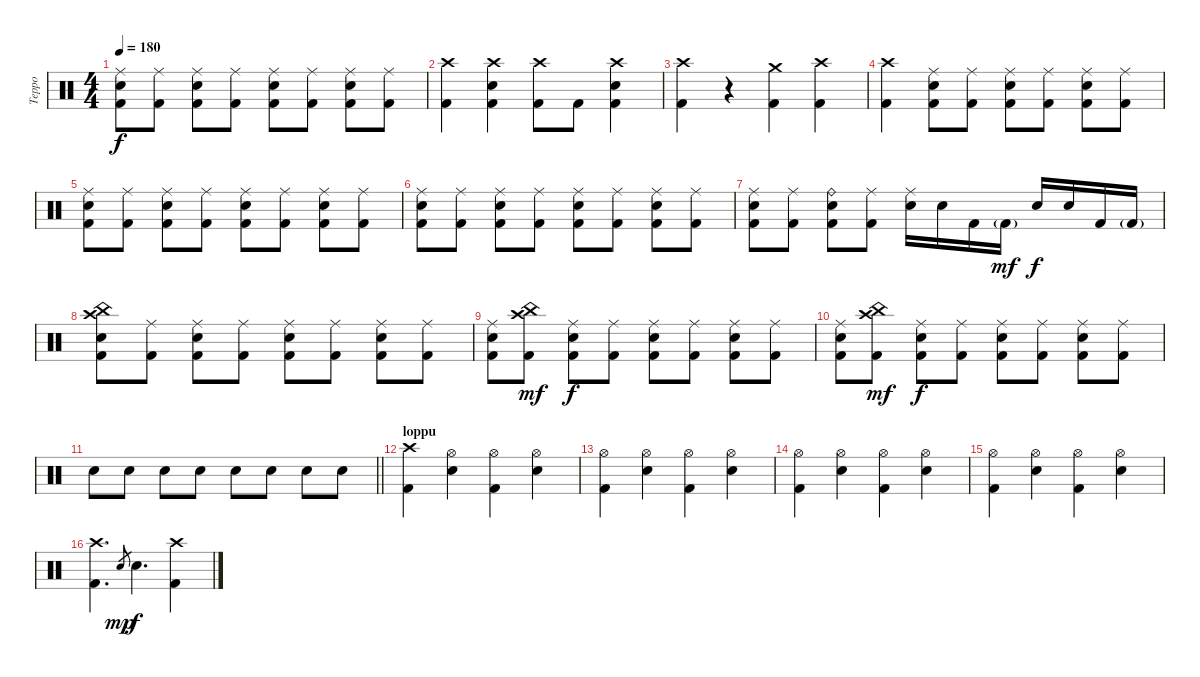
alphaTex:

\track ("Teppo" "Teppo") {instrument percussion}
\staff {score}
\articulation defaults
\ts (4 4)
\tempo 180
\clef neutral
\ks c
("Ride (middle)" "Electric Snare (hit)" "Kick (hit) 2").8{dy f} ("Ride (middle)" "Kick (hit) 2").8 ("Ride (middle)" "Electric Snare (hit)" "Kick (hit) 2").8 ("Ride (middle)" "Kick (hit) 2").8 ("Ride (middle)" "Electric Snare (hit)" "Kick (hit) 2").8 ("Ride (middle)" "Kick (hit) 2").8 ("Ride (middle)" "Electric Snare (hit)" "Kick (hit) 2").8 ("Ride (middle)" "Kick (hit) 2").8 |
("Crash high (hit)" "Kick (hit) 2").4 ("Crash high (hit)" "Electric Snare (hit)" "Kick (hit) 2").4 ("Crash high (hit)" "Kick (hit) 2").8 "Kick (hit) 2".8 ("Crash high (hit)" "Electric Snare (hit)" "Kick (hit) 2").4 |
("Crash high (hit)" "Kick (hit) 2").4 r.4 ("Crash medium (hit)" "Kick (hit) 2").4 ("Crash high (hit)" "Kick (hit) 2").4 |
("Crash high (hit)" "Kick (hit) 2").4 ("Ride (middle)" "Electric Snare (hit)" "Kick (hit) 2").8 ("Ride (middle)" "Kick (hit) 2").8 ("Ride (middle)" "Electric Snare (hit)" "Kick (hit) 2").8 ("Ride (middle)" "Kick (hit) 2").8 ("Ride (middle)" "Electric Snare (hit)" "Kick (hit) 2").8 ("Ride (middle)" "Kick (hit) 2").8 |
("Ride (middle)" "Electric Snare (hit)" "Kick (hit) 2").8 ("Ride (middle)" "Kick (hit) 2").8 ("Ride (middle)" "Electric Snare (hit)" "Kick (hit) 2").8 ("Ride (middle)" "Kick (hit) 2").8 ("Ride (middle)" "Electric Snare (hit)" "Kick (hit) 2").8 ("Ride (middle)" "Kick (hit) 2").8 ("Ride (middle)" "Electric Snare (hit)" "Kick (hit) 2").8 ("Ride (middle)" "Kick (hit) 2").8 |
("Ride (middle)" "Electric Snare (hit)" "Kick (hit) 2").8 ("Ride (middle)" "Kick (hit) 2").8 ("Ride (middle)" "Electric Snare (hit)" "Kick (hit) 2").8 ("Ride (middle)" "Kick (hit) 2").8 ("Ride (middle)" "Electric Snare (hit)" "Kick (hit) 2").8 ("Ride (middle)" "Kick (hit) 2").8 ("Ride (middle)" "Electric Snare (hit)" "Kick (hit) 2").8 ("Ride (middle)" "Kick (hit) 2").8 |
("Ride (middle)" "Electric Snare (hit)" "Kick (hit) 2").8 ("Ride (middle)" "Kick (hit) 2").8 ("Ride (bell)" "Electric Snare (hit)" "Kick (hit) 2").8 ("Ride (middle)" "Kick (hit) 2").8 ("Ride (middle)" "Electric Snare (hit)").16 "Electric Snare (hit)".16 "Kick (hit) 2".16 "Kick (hit) 2"{g}.16{dy mf} "Electric Snare (hit)".16{dy f} "Electric Snare (hit)".16 "Kick (hit) 2".16 "Kick (hit) 2"{g}.16 |
("Crash high (hit)" "China (hit)" "Electric Snare (hit)" "Kick (hit) 2").8 ("Ride (middle)" "Kick (hit) 2").8 ("Ride (middle)" "Electric Snare (hit)" "Kick (hit) 2").8 ("Ride (middle)" "Kick (hit) 2").8 ("Ride (middle)" "Electric Snare (hit)" "Kick (hit) 2").8 ("Ride (middle)" "Kick (hit) 2").8 ("Ride (middle)" "Electric Snare (hit)" "Kick (hit) 2").8 ("Ride (middle)" "Kick (hit) 2").8 |
("Ride (middle)" "Electric Snare (hit)" "Kick (hit) 2").8 ("Crash high (hit)" "China (hit)" "Kick (hit) 2").8{dy mf} ("Ride (middle)" "Electric Snare (hit)" "Kick (hit) 2").8{dy f} ("Ride (middle)" "Kick (hit) 2").8 ("Ride (middle)" "Electric Snare (hit)" "Kick (hit) 2").8 ("Ride (middle)" "Kick (hit) 2").8 ("Ride (middle)" "Electric Snare (hit)" "Kick (hit) 2").8 ("Ride (middle)" "Kick (hit) 2").8 |
("Ride (middle)" "Electric Snare (hit)" "Kick (hit) 2").8 ("Crash high (hit)" "China (hit)" "Kick (hit) 2").8{dy mf} ("Ride (middle)" "Electric Snare (hit)" "Kick (hit) 2").8{dy f} ("Ride (middle)" "Kick (hit) 2").8 ("Ride (middle)" "Electric Snare (hit)" "Kick (hit) 2").8 ("Ride (middle)" "Kick (hit) 2").8 ("Ride (middle)" "Electric Snare (hit)" "Kick (hit) 2").8 ("Ride (middle)" "Kick (hit) 2").8 |
\barLineRight lightlight "Electric Snare (hit)".8 "Electric Snare (hit)".8 "Electric Snare (hit)".8 "Electric Snare (hit)".8 "Electric Snare (hit)".8 "Electric Snare (hit)".8 "Electric Snare (hit)".8 "Electric Snare (hit)".8
|
\section ("" "loppu")
("Crash high (hit)" "Kick (hit) 2").4 ("Hi-Hat (open)" "Electric Snare (hit)").4 ("Hi-Hat (open)" "Kick (hit) 2").4 ("Hi-Hat (open)" "Electric Snare (hit)").4 |
("Hi-Hat (open)" "Kick (hit) 2").4 ("Hi-Hat (open)" "Electric Snare (hit)").4 ("Hi-Hat (open)" "Kick (hit) 2").4 ("Hi-Hat (open)" "Electric Snare (hit)").4 |
("Hi-Hat (open)" "Kick (hit) 2").4 ("Hi-Hat (open)" "Electric Snare (hit)").4 ("Hi-Hat (open)" "Kick (hit) 2").4 ("Hi-Hat (open)" "Electric Snare (hit)").4 |
("Hi-Hat (open)" "Kick (hit) 2").4 ("Hi-Hat (open)" "Electric Snare (hit)").4 ("Hi-Hat (open)" "Kick (hit) 2").4 ("Hi-Hat (open)" "Electric Snare (hit)").4 |
("Crash high (hit)" "Kick (hit) 2").4{d} "Electric Snare (hit)".8{gr dy mp} "Electric Snare (hit)".4{d dy f} ("Crash high (hit)" "Kick (hit) 2").4
